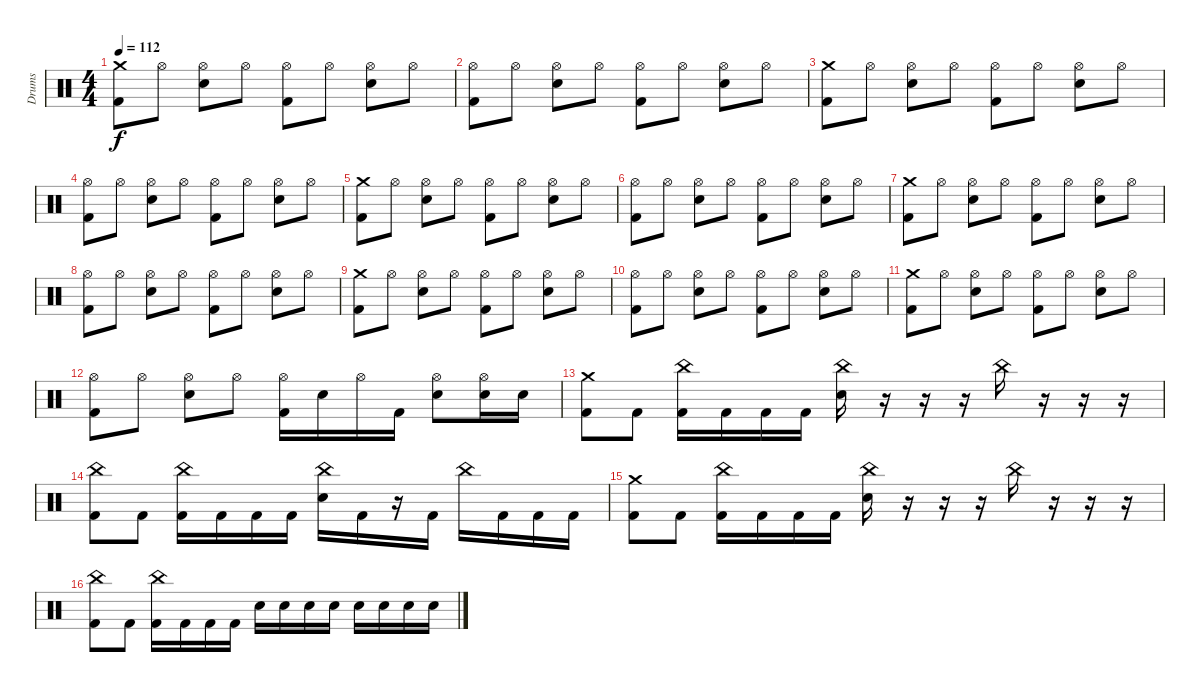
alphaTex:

\track ("Drums" "Drums") {instrument percussion}
\staff {score}
\articulation defaults
\ts (4 4)
\tempo 112
\clef neutral
\ks c
("Crash medium (hit)" "Kick (hit) 2").8{dy f} "Hi-Hat (open)".8 ("Hi-Hat (open)" "Electric Snare (hit)").8 "Hi-Hat (open)".8 ("Hi-Hat (open)" "Kick (hit) 2").8 "Hi-Hat (open)".8 ("Hi-Hat (open)" "Electric Snare (hit)").8 "Hi-Hat (open)".8 |
("Hi-Hat (open)" "Kick (hit) 2").8 "Hi-Hat (open)".8 ("Hi-Hat (open)" "Electric Snare (hit)").8 "Hi-Hat (open)".8 ("Hi-Hat (open)" "Kick (hit) 2").8 "Hi-Hat (open)".8 ("Hi-Hat (open)" "Electric Snare (hit)").8 "Hi-Hat (open)".8 |
("Crash medium (hit)" "Kick (hit) 2").8 "Hi-Hat (open)".8 ("Hi-Hat (open)" "Electric Snare (hit)").8 "Hi-Hat (open)".8 ("Hi-Hat (open)" "Kick (hit) 2").8 "Hi-Hat (open)".8 ("Hi-Hat (open)" "Electric Snare (hit)").8 "Hi-Hat (open)".8 |
("Hi-Hat (open)" "Kick (hit) 2").8 "Hi-Hat (open)".8 ("Hi-Hat (open)" "Electric Snare (hit)").8 "Hi-Hat (open)".8 ("Hi-Hat (open)" "Kick (hit) 2").8 "Hi-Hat (open)".8 ("Hi-Hat (open)" "Electric Snare (hit)").8 "Hi-Hat (open)".8 |
("Crash medium (hit)" "Kick (hit) 2").8 "Hi-Hat (open)".8 ("Hi-Hat (open)" "Electric Snare (hit)").8 "Hi-Hat (open)".8 ("Hi-Hat (open)" "Kick (hit) 2").8 "Hi-Hat (open)".8 ("Hi-Hat (open)" "Electric Snare (hit)").8 "Hi-Hat (open)".8 |
("Hi-Hat (open)" "Kick (hit) 2").8 "Hi-Hat (open)".8 ("Hi-Hat (open)" "Electric Snare (hit)").8 "Hi-Hat (open)".8 ("Hi-Hat (open)" "Kick (hit) 2").8 "Hi-Hat (open)".8 ("Hi-Hat (open)" "Electric Snare (hit)").8 "Hi-Hat (open)".8 |
("Crash medium (hit)" "Kick (hit) 2").8 "Hi-Hat (open)".8 ("Hi-Hat (open)" "Electric Snare (hit)").8 "Hi-Hat (open)".8 ("Hi-Hat (open)" "Kick (hit) 2").8 "Hi-Hat (open)".8 ("Hi-Hat (open)" "Electric Snare (hit)").8 "Hi-Hat (open)".8 |
("Hi-Hat (open)" "Kick (hit) 2").8 "Hi-Hat (open)".8 ("Hi-Hat (open)" "Electric Snare (hit)").8 "Hi-Hat (open)".8 ("Hi-Hat (open)" "Kick (hit) 2").8 "Hi-Hat (open)".8 ("Hi-Hat (open)" "Electric Snare (hit)").8 "Hi-Hat (open)".8 |
("Crash medium (hit)" "Kick (hit) 2").8 "Hi-Hat (open)".8 ("Hi-Hat (open)" "Electric Snare (hit)").8 "Hi-Hat (open)".8 ("Hi-Hat (open)" "Kick (hit) 2").8 "Hi-Hat (open)".8 ("Hi-Hat (open)" "Electric Snare (hit)").8 "Hi-Hat (open)".8 |
("Hi-Hat (open)" "Kick (hit) 2").8 "Hi-Hat (open)".8 ("Hi-Hat (open)" "Electric Snare (hit)").8 "Hi-Hat (open)".8 ("Hi-Hat (open)" "Kick (hit) 2").8 "Hi-Hat (open)".8 ("Hi-Hat (open)" "Electric Snare (hit)").8 "Hi-Hat (open)".8 |
("Crash medium (hit)" "Kick (hit) 2").8 "Hi-Hat (open)".8 ("Hi-Hat (open)" "Electric Snare (hit)").8 "Hi-Hat (open)".8 ("Hi-Hat (open)" "Kick (hit) 2").8 "Hi-Hat (open)".8 ("Hi-Hat (open)" "Electric Snare (hit)").8 "Hi-Hat (open)".8 |
("Hi-Hat (open)" "Kick (hit) 2").8 "Hi-Hat (open)".8 ("Hi-Hat (open)" "Electric Snare (hit)").8 "Hi-Hat (open)".8 ("Hi-Hat (open)" "Kick (hit) 2").16 "Electric Snare (hit)".16 "Hi-Hat (open)".16 "Kick (hit) 2".16 ("Hi-Hat (open)" "Electric Snare (hit)").8 ("Hi-Hat (open)" "Electric Snare (hit)").16 "Electric Snare (hit)".16 |
("Crash medium (hit)" "Kick (hit) 2").8 "Kick (hit) 2".8 ("China (hit)" "Kick (hit) 2").16 "Kick (hit) 2".16 "Kick (hit) 2".16 "Kick (hit) 2".16 ("China (hit)" "Electric Snare (hit)").16 r.16 r.16 r.16 "China (hit)".16 r.16 r.16 r.16 |
("China (hit)" "Kick (hit) 2").8 "Kick (hit) 2".8 ("China (hit)" "Kick (hit) 2").16 "Kick (hit) 2".16 "Kick (hit) 2".16 "Kick (hit) 2".16 ("China (hit)" "Electric Snare (hit)").16 "Kick (hit) 2".16 r.16 "Kick (hit) 2".16 "China (hit)".16 "Kick (hit) 2".16 "Kick (hit) 2".16 "Kick (hit) 2".16 |
("Crash medium (hit)" "Kick (hit) 2").8 "Kick (hit) 2".8 ("China (hit)" "Kick (hit) 2").16 "Kick (hit) 2".16 "Kick (hit) 2".16 "Kick (hit) 2".16 ("China (hit)" "Electric Snare (hit)").16 r.16 r.16 r.16 "China (hit)".16 r.16 r.16 r.16 |
("China (hit)" "Kick (hit) 2").8 "Kick (hit) 2".8 ("China (hit)" "Kick (hit) 2").16 "Kick (hit) 2".16 "Kick (hit) 2".16 "Kick (hit) 2".16 "Electric Snare (hit)".16 "Electric Snare (hit)".16 "Electric Snare (hit)".16 "Electric Snare (hit)".16 "Electric Snare (hit)".16 "Electric Snare (hit)".16 "Electric Snare (hit)".16 "Electric Snare (hit)".16
